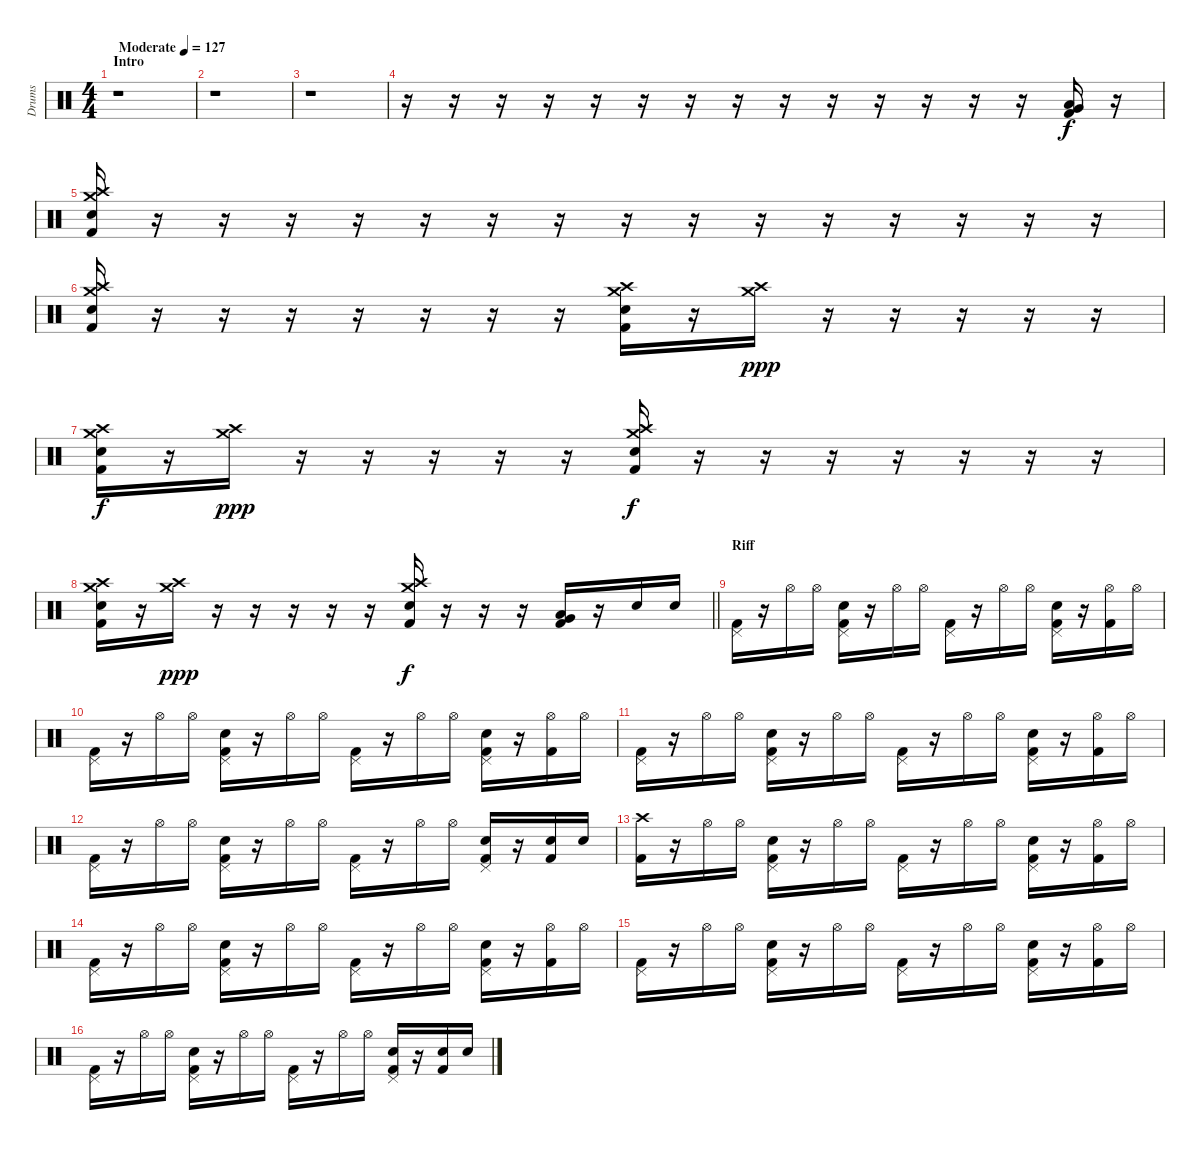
\track ("Drums" "Drums") {instrument percussion}
\staff {score}
\articulation defaults
\ts (4 4)
\section ("" "Intro")
\tempo (127 "Moderate")
\clef neutral
\ks c
r.1{dy f} |
r.1 |
r.1 |
r.16 r.16 r.16 r.16 r.16 r.16 r.16 r.16 r.16 r.16 r.16 r.16 r.16 r.16 ("Low Tom (hit)" "Very Low Tom (hit)" "Kick (hit) 2").16 r.16 |
("Crash high (hit)" "Crash medium (hit)" "Snare (hit) 2" "Kick (hit) 2").16 r.16 r.16 r.16 r.16 r.16 r.16 r.16 r.16 r.16 r.16 r.16 r.16 r.16 r.16 r.16 |
("Crash high (hit)" "Crash medium (hit)" "Snare (hit) 2" "Kick (hit) 2").16 r.16 r.16 r.16 r.16 r.16 r.16 r.16 ("Crash high (hit)" "Crash medium (hit)" "Snare (hit) 2" "Kick (hit) 2").16 r.16 ("Crash high (hit)" "Crash medium (hit)").16{dy ppp} r.16 r.16 r.16 r.16 r.16 |
("Crash high (hit)" "Crash medium (hit)" "Snare (hit) 2" "Kick (hit) 2").16{dy f} r.16 ("Crash high (hit)" "Crash medium (hit)").16{dy ppp} r.16 r.16 r.16 r.16 r.16 ("Crash high (hit)" "Crash medium (hit)" "Snare (hit) 2" "Kick (hit) 2").16{dy f} r.16 r.16 r.16 r.16 r.16 r.16 r.16 |
\barLineRight lightlight
("Crash high (hit)" "Crash medium (hit)" "Snare (hit) 2" "Kick (hit) 2").16 r.16 ("Crash high (hit)" "Crash medium (hit)").16{dy ppp} r.16 r.16 r.16 r.16 r.16 ("Crash high (hit)" "Crash medium (hit)" "Snare (hit) 2" "Kick (hit) 2").16{dy f} r.16 r.16 r.16 ("Low Tom (hit)" "Very Low Tom (hit)" "Kick (hit) 2").16 r.16 "Snare (hit) 2".16 "Snare (hit) 2".16 |
\section ("" "Riff")
("Pedal Hi-Hat (hit)" "Kick (hit) 2").16 r.16 "Hi-Hat (open)".16 "Hi-Hat (open)".16 ("Pedal Hi-Hat (hit)" "Snare (hit) 2" "Kick (hit) 2").16 r.16 "Hi-Hat (open)".16 "Hi-Hat (open)".16 ("Pedal Hi-Hat (hit)" "Kick (hit) 2").16 r.16 "Hi-Hat (open)".16 "Hi-Hat (open)".16 ("Pedal Hi-Hat (hit)" "Snare (hit) 2" "Kick (hit) 2").16 r.16 ("Hi-Hat (open)" "Kick (hit) 2").16 "Hi-Hat (open)".16 |
("Pedal Hi-Hat (hit)" "Kick (hit) 2").16 r.16 "Hi-Hat (open)".16 "Hi-Hat (open)".16 ("Pedal Hi-Hat (hit)" "Snare (hit) 2" "Kick (hit) 2").16 r.16 "Hi-Hat (open)".16 "Hi-Hat (open)".16 ("Pedal Hi-Hat (hit)" "Kick (hit) 2").16 r.16 "Hi-Hat (open)".16 "Hi-Hat (open)".16 ("Pedal Hi-Hat (hit)" "Snare (hit) 2" "Kick (hit) 2").16 r.16 ("Hi-Hat (open)" "Kick (hit) 2").16 "Hi-Hat (open)".16 |
("Pedal Hi-Hat (hit)" "Kick (hit) 2").16 r.16 "Hi-Hat (open)".16 "Hi-Hat (open)".16 ("Pedal Hi-Hat (hit)" "Snare (hit) 2" "Kick (hit) 2").16 r.16 "Hi-Hat (open)".16 "Hi-Hat (open)".16 ("Pedal Hi-Hat (hit)" "Kick (hit) 2").16 r.16 "Hi-Hat (open)".16 "Hi-Hat (open)".16 ("Pedal Hi-Hat (hit)" "Snare (hit) 2" "Kick (hit) 2").16 r.16 ("Hi-Hat (open)" "Kick (hit) 2").16 "Hi-Hat (open)".16 |
("Pedal Hi-Hat (hit)" "Kick (hit) 2").16 r.16 "Hi-Hat (open)".16 "Hi-Hat (open)".16 ("Pedal Hi-Hat (hit)" "Snare (hit) 2" "Kick (hit) 2").16 r.16 "Hi-Hat (open)".16 "Hi-Hat (open)".16 ("Pedal Hi-Hat (hit)" "Kick (hit) 2").16 r.16 "Hi-Hat (open)".16 "Hi-Hat (open)".16 ("Pedal Hi-Hat (hit)" "Snare (hit) 2" "Kick (hit) 2").16 r.16 ("Snare (hit) 2" "Kick (hit) 2").16 "Snare (hit) 2".16 |
("Crash high (hit)" "Kick (hit) 2").16 r.16 "Hi-Hat (open)".16 "Hi-Hat (open)".16 ("Pedal Hi-Hat (hit)" "Snare (hit) 2" "Kick (hit) 2").16 r.16 "Hi-Hat (open)".16 "Hi-Hat (open)".16 ("Pedal Hi-Hat (hit)" "Kick (hit) 2").16 r.16 "Hi-Hat (open)".16 "Hi-Hat (open)".16 ("Pedal Hi-Hat (hit)" "Snare (hit) 2" "Kick (hit) 2").16 r.16 ("Hi-Hat (open)" "Kick (hit) 2").16 "Hi-Hat (open)".16 |
("Pedal Hi-Hat (hit)" "Kick (hit) 2").16 r.16 "Hi-Hat (open)".16 "Hi-Hat (open)".16 ("Pedal Hi-Hat (hit)" "Snare (hit) 2" "Kick (hit) 2").16 r.16 "Hi-Hat (open)".16 "Hi-Hat (open)".16 ("Pedal Hi-Hat (hit)" "Kick (hit) 2").16 r.16 "Hi-Hat (open)".16 "Hi-Hat (open)".16 ("Pedal Hi-Hat (hit)" "Snare (hit) 2" "Kick (hit) 2").16 r.16 ("Hi-Hat (open)" "Kick (hit) 2").16 "Hi-Hat (open)".16 |
("Pedal Hi-Hat (hit)" "Kick (hit) 2").16 r.16 "Hi-Hat (open)".16 "Hi-Hat (open)".16 ("Pedal Hi-Hat (hit)" "Snare (hit) 2" "Kick (hit) 2").16 r.16 "Hi-Hat (open)".16 "Hi-Hat (open)".16 ("Pedal Hi-Hat (hit)" "Kick (hit) 2").16 r.16 "Hi-Hat (open)".16 "Hi-Hat (open)".16 ("Pedal Hi-Hat (hit)" "Snare (hit) 2" "Kick (hit) 2").16 r.16 ("Hi-Hat (open)" "Kick (hit) 2").16 "Hi-Hat (open)".16 |
("Pedal Hi-Hat (hit)" "Kick (hit) 2").16 r.16 "Hi-Hat (open)".16 "Hi-Hat (open)".16 ("Pedal Hi-Hat (hit)" "Snare (hit) 2" "Kick (hit) 2").16 r.16 "Hi-Hat (open)".16 "Hi-Hat (open)".16 ("Pedal Hi-Hat (hit)" "Kick (hit) 2").16 r.16 "Hi-Hat (open)".16 "Hi-Hat (open)".16 ("Pedal Hi-Hat (hit)" "Snare (hit) 2" "Kick (hit) 2").16 r.16 ("Snare (hit) 2" "Kick (hit) 2").16 "Snare (hit) 2".16
